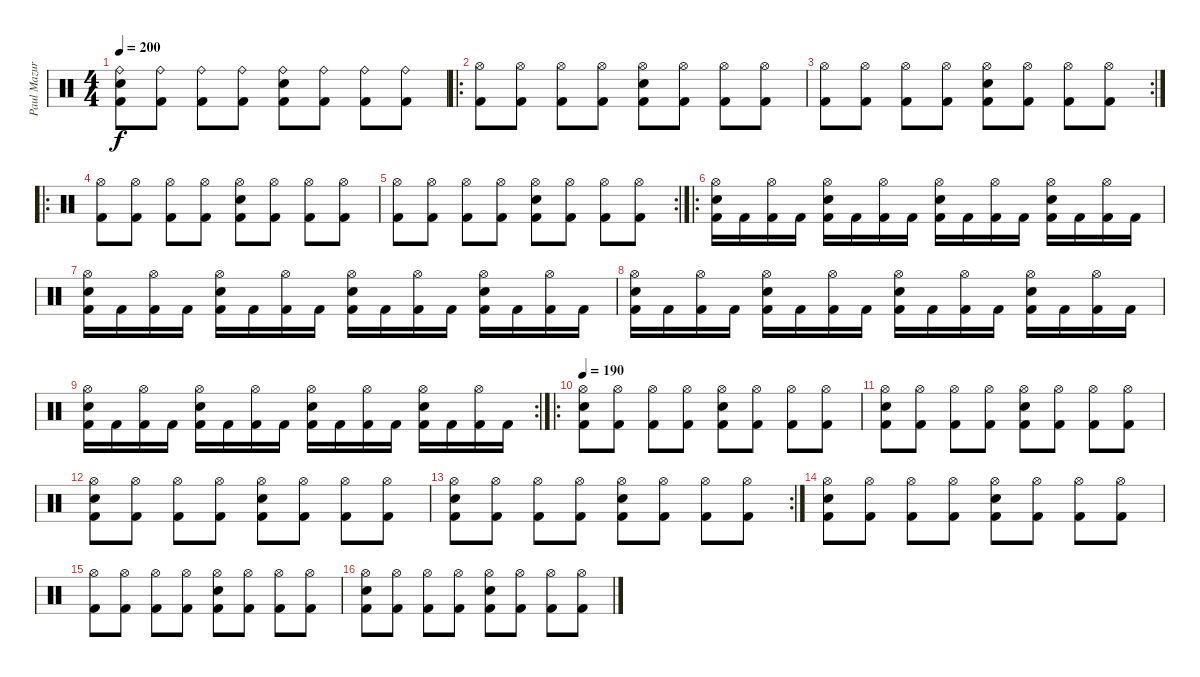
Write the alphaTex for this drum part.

\track ("Paul Mazurkiewicz" "Paul Mazur") {instrument percussion}
\staff {score}
\articulation defaults
\ts (4 4)
\tempo 200
\clef neutral
\ks c
("Ride (bell)" "Snare (hit) 2" "Kick (hit) 2").8{dy f} ("Ride (bell)" "Kick (hit) 2").8 ("Ride (bell)" "Kick (hit) 2").8 ("Ride (bell)" "Kick (hit) 2").8 ("Ride (bell)" "Snare (hit) 2" "Kick (hit) 2").8 ("Ride (bell)" "Kick (hit) 2").8 ("Ride (bell)" "Kick (hit) 2").8 ("Ride (bell)" "Kick (hit) 2").8 |
\ro
("Hi-Hat (open)" "Kick (hit) 2").8 ("Hi-Hat (open)" "Kick (hit) 2").8 ("Hi-Hat (open)" "Kick (hit) 2").8 ("Hi-Hat (open)" "Kick (hit) 2").8 ("Hi-Hat (open)" "Snare (hit) 2" "Kick (hit) 2").8 ("Hi-Hat (open)" "Kick (hit) 2").8 ("Hi-Hat (open)" "Kick (hit) 2").8 ("Hi-Hat (open)" "Kick (hit) 2").8 |
\rc 2
("Hi-Hat (open)" "Kick (hit) 2").8 ("Hi-Hat (open)" "Kick (hit) 2").8 ("Hi-Hat (open)" "Kick (hit) 2").8 ("Hi-Hat (open)" "Kick (hit) 2").8 ("Hi-Hat (open)" "Snare (hit) 2" "Kick (hit) 2").8 ("Hi-Hat (open)" "Kick (hit) 2").8 ("Hi-Hat (open)" "Kick (hit) 2").8 ("Hi-Hat (open)" "Kick (hit) 2").8 |
\ro
("Hi-Hat (open)" "Kick (hit) 2").8 ("Hi-Hat (open)" "Kick (hit) 2").8 ("Hi-Hat (open)" "Kick (hit) 2").8 ("Hi-Hat (open)" "Kick (hit) 2").8 ("Hi-Hat (open)" "Snare (hit) 2" "Kick (hit) 2").8 ("Hi-Hat (open)" "Kick (hit) 2").8 ("Hi-Hat (open)" "Kick (hit) 2").8 ("Hi-Hat (open)" "Kick (hit) 2").8 |
\rc 2
("Hi-Hat (open)" "Kick (hit) 2").8 ("Hi-Hat (open)" "Kick (hit) 2").8 ("Hi-Hat (open)" "Kick (hit) 2").8 ("Hi-Hat (open)" "Kick (hit) 2").8 ("Hi-Hat (open)" "Snare (hit) 2" "Kick (hit) 2").8 ("Hi-Hat (open)" "Kick (hit) 2").8 ("Hi-Hat (open)" "Kick (hit) 2").8 ("Hi-Hat (open)" "Kick (hit) 2").8 |
\ro
("Hi-Hat (open)" "Snare (hit) 2" "Kick (hit) 2").16 "Kick (hit) 2".16 ("Hi-Hat (open)" "Kick (hit) 2").16 "Kick (hit) 2".16 ("Hi-Hat (open)" "Snare (hit) 2" "Kick (hit) 2").16 "Kick (hit) 2".16 ("Hi-Hat (open)" "Kick (hit) 2").16 "Kick (hit) 2".16 ("Hi-Hat (open)" "Snare (hit) 2" "Kick (hit) 2").16 "Kick (hit) 2".16 ("Hi-Hat (open)" "Kick (hit) 2").16 "Kick (hit) 2".16 ("Hi-Hat (open)" "Snare (hit) 2" "Kick (hit) 2").16 "Kick (hit) 2".16 ("Hi-Hat (open)" "Kick (hit) 2").16 "Kick (hit) 2".16 |
("Hi-Hat (open)" "Snare (hit) 2" "Kick (hit) 2").16 "Kick (hit) 2".16 ("Hi-Hat (open)" "Kick (hit) 2").16 "Kick (hit) 2".16 ("Hi-Hat (open)" "Snare (hit) 2" "Kick (hit) 2").16 "Kick (hit) 2".16 ("Hi-Hat (open)" "Kick (hit) 2").16 "Kick (hit) 2".16 ("Hi-Hat (open)" "Snare (hit) 2" "Kick (hit) 2").16 "Kick (hit) 2".16 ("Hi-Hat (open)" "Kick (hit) 2").16 "Kick (hit) 2".16 ("Hi-Hat (open)" "Snare (hit) 2" "Kick (hit) 2").16 "Kick (hit) 2".16 ("Hi-Hat (open)" "Kick (hit) 2").16 "Kick (hit) 2".16 |
("Hi-Hat (open)" "Snare (hit) 2" "Kick (hit) 2").16 "Kick (hit) 2".16 ("Hi-Hat (open)" "Kick (hit) 2").16 "Kick (hit) 2".16 ("Hi-Hat (open)" "Snare (hit) 2" "Kick (hit) 2").16 "Kick (hit) 2".16 ("Hi-Hat (open)" "Kick (hit) 2").16 "Kick (hit) 2".16 ("Hi-Hat (open)" "Snare (hit) 2" "Kick (hit) 2").16 "Kick (hit) 2".16 ("Hi-Hat (open)" "Kick (hit) 2").16 "Kick (hit) 2".16 ("Hi-Hat (open)" "Snare (hit) 2" "Kick (hit) 2").16 "Kick (hit) 2".16 ("Hi-Hat (open)" "Kick (hit) 2").16 "Kick (hit) 2".16 |
\rc 2
("Hi-Hat (open)" "Snare (hit) 2" "Kick (hit) 2").16 "Kick (hit) 2".16 ("Hi-Hat (open)" "Kick (hit) 2").16 "Kick (hit) 2".16 ("Hi-Hat (open)" "Snare (hit) 2" "Kick (hit) 2").16 "Kick (hit) 2".16 ("Hi-Hat (open)" "Kick (hit) 2").16 "Kick (hit) 2".16 ("Hi-Hat (open)" "Snare (hit) 2" "Kick (hit) 2").16 "Kick (hit) 2".16 ("Hi-Hat (open)" "Kick (hit) 2").16 "Kick (hit) 2".16 ("Hi-Hat (open)" "Snare (hit) 2" "Kick (hit) 2").16 "Kick (hit) 2".16 ("Hi-Hat (open)" "Kick (hit) 2").16 "Kick (hit) 2".16 |
\ro
\tempo 190
("Hi-Hat (open)" "Snare (hit) 2" "Kick (hit) 2").8 ("Hi-Hat (open)" "Kick (hit) 2").8 ("Hi-Hat (open)" "Kick (hit) 2").8 ("Hi-Hat (open)" "Kick (hit) 2").8 ("Hi-Hat (open)" "Snare (hit) 2" "Kick (hit) 2").8 ("Hi-Hat (open)" "Kick (hit) 2").8 ("Hi-Hat (open)" "Kick (hit) 2").8 ("Hi-Hat (open)" "Kick (hit) 2").8 |
("Hi-Hat (open)" "Snare (hit) 2" "Kick (hit) 2").8 ("Hi-Hat (open)" "Kick (hit) 2").8 ("Hi-Hat (open)" "Kick (hit) 2").8 ("Hi-Hat (open)" "Kick (hit) 2").8 ("Hi-Hat (open)" "Snare (hit) 2" "Kick (hit) 2").8 ("Hi-Hat (open)" "Kick (hit) 2").8 ("Hi-Hat (open)" "Kick (hit) 2").8 ("Hi-Hat (open)" "Kick (hit) 2").8 |
("Hi-Hat (open)" "Snare (hit) 2" "Kick (hit) 2").8 ("Hi-Hat (open)" "Kick (hit) 2").8 ("Hi-Hat (open)" "Kick (hit) 2").8 ("Hi-Hat (open)" "Kick (hit) 2").8 ("Hi-Hat (open)" "Snare (hit) 2" "Kick (hit) 2").8 ("Hi-Hat (open)" "Kick (hit) 2").8 ("Hi-Hat (open)" "Kick (hit) 2").8 ("Hi-Hat (open)" "Kick (hit) 2").8 |
\rc 2
("Hi-Hat (open)" "Snare (hit) 2" "Kick (hit) 2").8 ("Hi-Hat (open)" "Kick (hit) 2").8 ("Hi-Hat (open)" "Kick (hit) 2").8 ("Hi-Hat (open)" "Kick (hit) 2").8 ("Hi-Hat (open)" "Snare (hit) 2" "Kick (hit) 2").8 ("Hi-Hat (open)" "Kick (hit) 2").8 ("Hi-Hat (open)" "Kick (hit) 2").8 ("Hi-Hat (open)" "Kick (hit) 2").8 |
("Hi-Hat (open)" "Snare (hit) 2" "Kick (hit) 2").8 ("Hi-Hat (open)" "Kick (hit) 2").8 ("Hi-Hat (open)" "Kick (hit) 2").8 ("Hi-Hat (open)" "Kick (hit) 2").8 ("Hi-Hat (open)" "Snare (hit) 2" "Kick (hit) 2").8 ("Hi-Hat (open)" "Kick (hit) 2").8 ("Hi-Hat (open)" "Kick (hit) 2").8 ("Hi-Hat (open)" "Kick (hit) 2").8 |
("Hi-Hat (open)" "Kick (hit) 2").8 ("Hi-Hat (open)" "Kick (hit) 2").8 ("Hi-Hat (open)" "Kick (hit) 2").8 ("Hi-Hat (open)" "Kick (hit) 2").8 ("Hi-Hat (open)" "Snare (hit) 2" "Kick (hit) 2").8 ("Hi-Hat (open)" "Kick (hit) 2").8 ("Hi-Hat (open)" "Kick (hit) 2").8 ("Hi-Hat (open)" "Kick (hit) 2").8 |
("Hi-Hat (open)" "Snare (hit) 2" "Kick (hit) 2").8 ("Hi-Hat (open)" "Kick (hit) 2").8 ("Hi-Hat (open)" "Kick (hit) 2").8 ("Hi-Hat (open)" "Kick (hit) 2").8 ("Hi-Hat (open)" "Snare (hit) 2" "Kick (hit) 2").8 ("Hi-Hat (open)" "Kick (hit) 2").8 ("Hi-Hat (open)" "Kick (hit) 2").8 ("Hi-Hat (open)" "Kick (hit) 2").8
